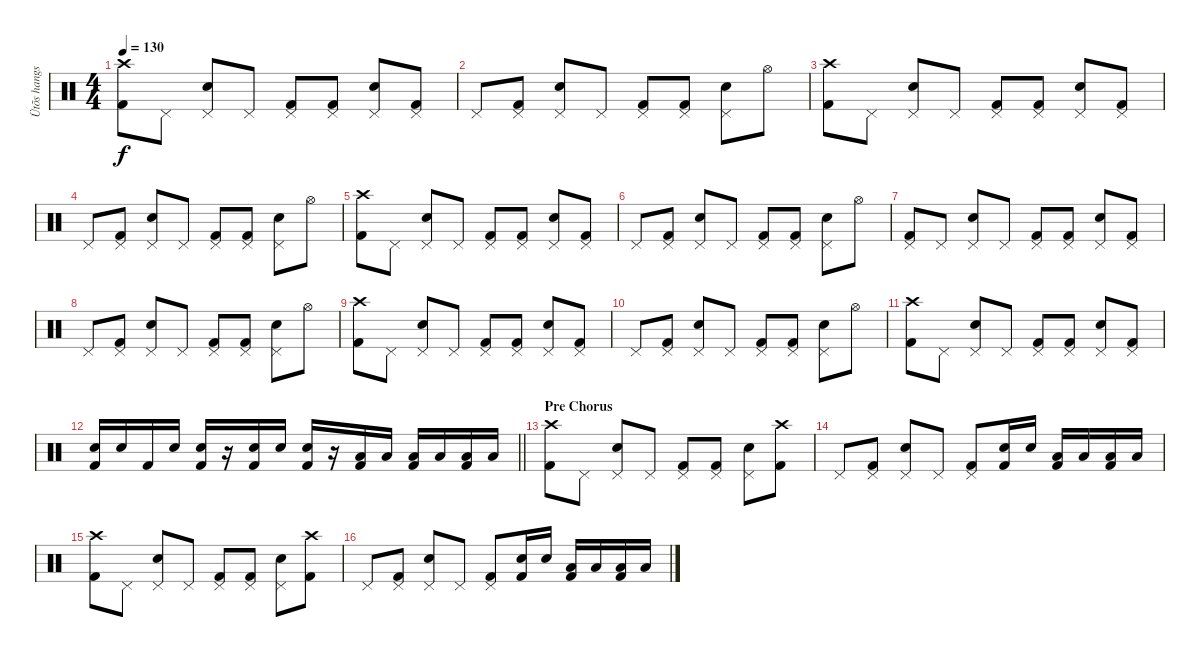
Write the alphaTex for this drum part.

\track ("Ütõs hangszer" "Ütõs hangs") {instrument percussion}
\staff {score}
\articulation defaults
\ts (4 4)
\tempo 130
\clef neutral
\ks c
("Crash high (hit)" "Kick (hit) 2").8{dy f} "Pedal Hi-Hat (hit)".8 ("Pedal Hi-Hat (hit)" "Snare (hit) 2").8 "Pedal Hi-Hat (hit)".8 ("Pedal Hi-Hat (hit)" "Kick (hit) 2").8 ("Pedal Hi-Hat (hit)" "Kick (hit) 2").8 ("Pedal Hi-Hat (hit)" "Snare (hit) 2").8 ("Pedal Hi-Hat (hit)" "Kick (hit) 2").8 |
"Pedal Hi-Hat (hit)".8 ("Pedal Hi-Hat (hit)" "Kick (hit) 2").8 ("Pedal Hi-Hat (hit)" "Snare (hit) 2").8 "Pedal Hi-Hat (hit)".8 ("Pedal Hi-Hat (hit)" "Kick (hit) 2").8 ("Pedal Hi-Hat (hit)" "Kick (hit) 2").8 ("Pedal Hi-Hat (hit)" "Snare (hit) 2").8 "Hi-Hat (open)".8 |
("Crash high (hit)" "Kick (hit) 2").8 "Pedal Hi-Hat (hit)".8 ("Pedal Hi-Hat (hit)" "Snare (hit) 2").8 "Pedal Hi-Hat (hit)".8 ("Pedal Hi-Hat (hit)" "Kick (hit) 2").8 ("Pedal Hi-Hat (hit)" "Kick (hit) 2").8 ("Pedal Hi-Hat (hit)" "Snare (hit) 2").8 ("Pedal Hi-Hat (hit)" "Kick (hit) 2").8 |
"Pedal Hi-Hat (hit)".8 ("Pedal Hi-Hat (hit)" "Kick (hit) 2").8 ("Pedal Hi-Hat (hit)" "Snare (hit) 2").8 "Pedal Hi-Hat (hit)".8 ("Pedal Hi-Hat (hit)" "Kick (hit) 2").8 ("Pedal Hi-Hat (hit)" "Kick (hit) 2").8 ("Pedal Hi-Hat (hit)" "Snare (hit) 2").8 "Hi-Hat (open)".8 |
("Crash high (hit)" "Kick (hit) 2").8 "Pedal Hi-Hat (hit)".8 ("Pedal Hi-Hat (hit)" "Snare (hit) 2").8 "Pedal Hi-Hat (hit)".8 ("Pedal Hi-Hat (hit)" "Kick (hit) 2").8 ("Pedal Hi-Hat (hit)" "Kick (hit) 2").8 ("Pedal Hi-Hat (hit)" "Snare (hit) 2").8 ("Pedal Hi-Hat (hit)" "Kick (hit) 2").8 |
"Pedal Hi-Hat (hit)".8 ("Pedal Hi-Hat (hit)" "Kick (hit) 2").8 ("Pedal Hi-Hat (hit)" "Snare (hit) 2").8 "Pedal Hi-Hat (hit)".8 ("Pedal Hi-Hat (hit)" "Kick (hit) 2").8 ("Pedal Hi-Hat (hit)" "Kick (hit) 2").8 ("Pedal Hi-Hat (hit)" "Snare (hit) 2").8 "Hi-Hat (open)".8 |
("Pedal Hi-Hat (hit)" "Kick (hit) 2").8 "Pedal Hi-Hat (hit)".8 ("Pedal Hi-Hat (hit)" "Snare (hit) 2").8 "Pedal Hi-Hat (hit)".8 ("Pedal Hi-Hat (hit)" "Kick (hit) 2").8 ("Pedal Hi-Hat (hit)" "Kick (hit) 2").8 ("Pedal Hi-Hat (hit)" "Snare (hit) 2").8 ("Pedal Hi-Hat (hit)" "Kick (hit) 2").8 |
"Pedal Hi-Hat (hit)".8 ("Pedal Hi-Hat (hit)" "Kick (hit) 2").8 ("Pedal Hi-Hat (hit)" "Snare (hit) 2").8 "Pedal Hi-Hat (hit)".8 ("Pedal Hi-Hat (hit)" "Kick (hit) 2").8 ("Pedal Hi-Hat (hit)" "Kick (hit) 2").8 ("Pedal Hi-Hat (hit)" "Snare (hit) 2").8 "Hi-Hat (open)".8 |
("Crash high (hit)" "Kick (hit) 2").8 "Pedal Hi-Hat (hit)".8 ("Pedal Hi-Hat (hit)" "Snare (hit) 2").8 "Pedal Hi-Hat (hit)".8 ("Pedal Hi-Hat (hit)" "Kick (hit) 2").8 ("Pedal Hi-Hat (hit)" "Kick (hit) 2").8 ("Pedal Hi-Hat (hit)" "Snare (hit) 2").8 ("Pedal Hi-Hat (hit)" "Kick (hit) 2").8 |
"Pedal Hi-Hat (hit)".8 ("Pedal Hi-Hat (hit)" "Kick (hit) 2").8 ("Pedal Hi-Hat (hit)" "Snare (hit) 2").8 "Pedal Hi-Hat (hit)".8 ("Pedal Hi-Hat (hit)" "Kick (hit) 2").8 ("Pedal Hi-Hat (hit)" "Kick (hit) 2").8 ("Pedal Hi-Hat (hit)" "Snare (hit) 2").8 "Hi-Hat (open)".8 |
("Crash high (hit)" "Kick (hit) 2").8 "Pedal Hi-Hat (hit)".8 ("Pedal Hi-Hat (hit)" "Snare (hit) 2").8 "Pedal Hi-Hat (hit)".8 ("Pedal Hi-Hat (hit)" "Kick (hit) 2").8 ("Pedal Hi-Hat (hit)" "Kick (hit) 2").8 ("Pedal Hi-Hat (hit)" "Snare (hit) 2").8 ("Pedal Hi-Hat (hit)" "Kick (hit) 2").8 |
\barLineRight lightlight
("Snare (hit) 2" "Kick (hit) 2").16 "Snare (hit) 2".16 "Kick (hit) 2".16 "Snare (hit) 2".16 ("Snare (hit) 2" "Kick (hit) 2").16 r.16 ("Snare (hit) 2" "Kick (hit) 2").16 "Snare (hit) 2".16 ("Snare (hit) 2" "Kick (hit) 2").16 r.16 ("Low Tom (hit)" "Kick (hit) 2").16 "Low Tom (hit)".16 ("Kick (hit) 2" "Low Floor Tom (hit)").16 "Low Floor Tom (hit)".16 ("Kick (hit) 2" "Low Floor Tom (hit)").16 "Low Floor Tom (hit)".16 |
\section ("" "Pre Chorus")
("Crash high (hit)" "Kick (hit) 2").8 "Pedal Hi-Hat (hit)".8 ("Pedal Hi-Hat (hit)" "Snare (hit) 2").8 "Pedal Hi-Hat (hit)".8 ("Pedal Hi-Hat (hit)" "Kick (hit) 2").8 ("Pedal Hi-Hat (hit)" "Kick (hit) 2").8 ("Pedal Hi-Hat (hit)" "Snare (hit) 2").8 ("Crash high (hit)" "Kick (hit) 2").8 |
"Pedal Hi-Hat (hit)".8 ("Pedal Hi-Hat (hit)" "Kick (hit) 2").8 ("Pedal Hi-Hat (hit)" "Snare (hit) 2").8 "Pedal Hi-Hat (hit)".8 ("Pedal Hi-Hat (hit)" "Kick (hit) 2").8 ("Snare (hit) 2" "Kick (hit) 2").16 "Snare (hit) 2".16 ("Low Tom (hit)" "Kick (hit) 2").16 "Low Tom (hit)".16 ("Kick (hit) 2" "Low Floor Tom (hit)").16 "Low Floor Tom (hit)".16 |
("Crash high (hit)" "Kick (hit) 2").8 "Pedal Hi-Hat (hit)".8 ("Pedal Hi-Hat (hit)" "Snare (hit) 2").8 "Pedal Hi-Hat (hit)".8 ("Pedal Hi-Hat (hit)" "Kick (hit) 2").8 ("Pedal Hi-Hat (hit)" "Kick (hit) 2").8 ("Pedal Hi-Hat (hit)" "Snare (hit) 2").8 ("Crash high (hit)" "Kick (hit) 2").8 |
"Pedal Hi-Hat (hit)".8 ("Pedal Hi-Hat (hit)" "Kick (hit) 2").8 ("Pedal Hi-Hat (hit)" "Snare (hit) 2").8 "Pedal Hi-Hat (hit)".8 ("Pedal Hi-Hat (hit)" "Kick (hit) 2").8 ("Snare (hit) 2" "Kick (hit) 2").16 "Snare (hit) 2".16 ("Low Tom (hit)" "Kick (hit) 2").16 "Low Tom (hit)".16 ("Kick (hit) 2" "Low Floor Tom (hit)").16 "Low Floor Tom (hit)".16
